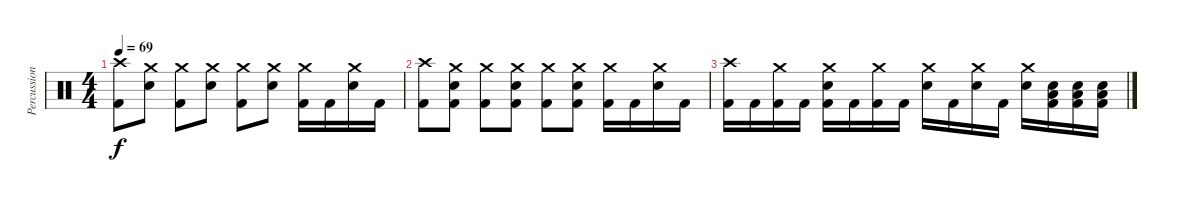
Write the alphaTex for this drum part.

\track ("Percussion" "Percussion") {instrument percussion}
\staff {score}
\articulation defaults
\ts (4 4)
\tempo 69
\clef neutral
\ks c
("Crash high (hit)" "Kick (hit) 2").8{dy f} ("Crash medium (hit)" "Electric Snare (hit)").8 ("Crash medium (hit)" "Kick (hit) 2").8 ("Crash medium (hit)" "Electric Snare (hit)").8 ("Crash medium (hit)" "Kick (hit) 2").8 ("Crash medium (hit)" "Electric Snare (hit)").8 ("Crash medium (hit)" "Kick (hit) 2").16 "Kick (hit) 2".16 ("Crash medium (hit)" "Electric Snare (hit)").16 "Kick (hit) 2".16 |
("Crash high (hit)" "Kick (hit) 2").8 ("Crash medium (hit)" "Electric Snare (hit)" "Kick (hit) 2").8 ("Crash medium (hit)" "Kick (hit) 2").8 ("Crash medium (hit)" "Electric Snare (hit)" "Kick (hit) 2").8 ("Crash medium (hit)" "Kick (hit) 2").8 ("Crash medium (hit)" "Electric Snare (hit)" "Kick (hit) 2").8 ("Crash medium (hit)" "Kick (hit) 2").16 "Kick (hit) 2".16 ("Crash medium (hit)" "Electric Snare (hit)").16 "Kick (hit) 2".16 |
("Crash high (hit)" "Kick (hit) 2").16 "Kick (hit) 2".16 ("Crash medium (hit)" "Kick (hit) 2").16 "Kick (hit) 2".16 ("Crash medium (hit)" "Electric Snare (hit)" "Kick (hit) 2").16 "Kick (hit) 2".16 ("Crash medium (hit)" "Kick (hit) 2").16 "Kick (hit) 2".16 ("Crash medium (hit)" "Electric Snare (hit)").16 "Kick (hit) 2".16 ("Crash medium (hit)" "Electric Snare (hit)").16 "Kick (hit) 2".16 ("Crash medium (hit)" "Electric Snare (hit)").16 ("Low Floor Tom (hit)" "Electric Snare (hit)" "Kick (hit) 2").16 ("Low Floor Tom (hit)" "Electric Snare (hit)" "Kick (hit) 2").16 ("Low Floor Tom (hit)" "Electric Snare (hit)" "Kick (hit) 2").16
